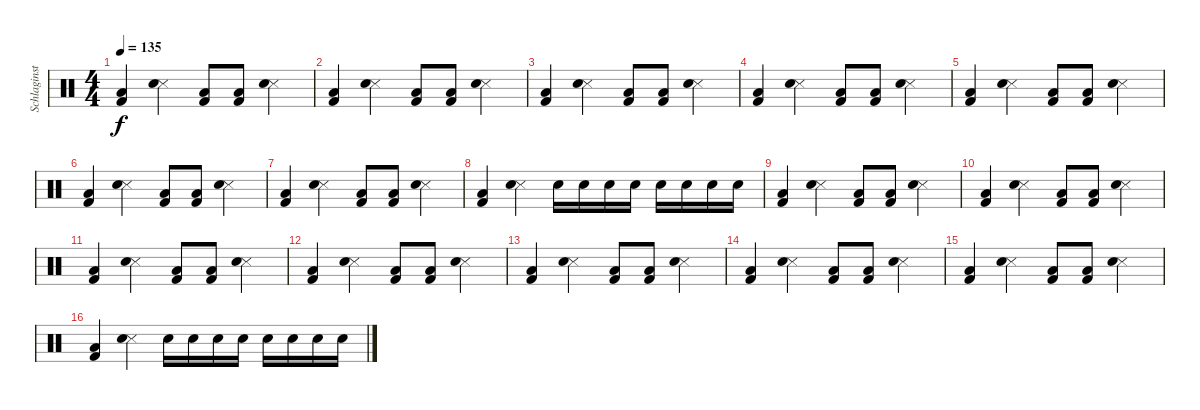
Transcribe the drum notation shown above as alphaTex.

\track ("Schlaginstrumente - Auswahl" "Schlaginst") {instrument percussion}
\staff {score}
\articulation defaults
\ts (4 4)
\tempo 135
\clef neutral
\ks c
("Kick (hit) 2" "Low Tom (hit)").4{dy f} ("Snare (side stick) 3" "Electric Snare (hit)").4 ("Kick (hit) 2" "Low Tom (hit)").8 ("Kick (hit) 2" "Low Tom (hit)").8 ("Snare (side stick) 3" "Electric Snare (hit)").4 |
("Kick (hit) 2" "Low Tom (hit)").4 ("Snare (side stick) 3" "Electric Snare (hit)").4 ("Kick (hit) 2" "Low Tom (hit)").8 ("Kick (hit) 2" "Low Tom (hit)").8 ("Snare (side stick) 3" "Electric Snare (hit)").4 |
("Kick (hit) 2" "Low Tom (hit)").4 ("Snare (side stick) 3" "Electric Snare (hit)").4 ("Kick (hit) 2" "Low Tom (hit)").8 ("Kick (hit) 2" "Low Tom (hit)").8 ("Snare (side stick) 3" "Electric Snare (hit)").4 |
("Kick (hit) 2" "Low Tom (hit)").4 ("Snare (side stick) 3" "Electric Snare (hit)").4 ("Kick (hit) 2" "Low Tom (hit)").8 ("Kick (hit) 2" "Low Tom (hit)").8 ("Snare (side stick) 3" "Electric Snare (hit)").4 |
("Kick (hit) 2" "Low Tom (hit)").4 ("Snare (side stick) 3" "Electric Snare (hit)").4 ("Kick (hit) 2" "Low Tom (hit)").8 ("Kick (hit) 2" "Low Tom (hit)").8 ("Snare (side stick) 3" "Electric Snare (hit)").4 |
("Kick (hit) 2" "Low Tom (hit)").4 ("Snare (side stick) 3" "Electric Snare (hit)").4 ("Kick (hit) 2" "Low Tom (hit)").8 ("Kick (hit) 2" "Low Tom (hit)").8 ("Snare (side stick) 3" "Electric Snare (hit)").4 |
("Kick (hit) 2" "Low Tom (hit)").4 ("Snare (side stick) 3" "Electric Snare (hit)").4 ("Kick (hit) 2" "Low Tom (hit)").8 ("Kick (hit) 2" "Low Tom (hit)").8 ("Snare (side stick) 3" "Electric Snare (hit)").4 |
("Kick (hit) 2" "Low Tom (hit)").4 ("Snare (side stick) 3" "Electric Snare (hit)").4 "Electric Snare (hit)".16 "Electric Snare (hit)".16 "Electric Snare (hit)".16 "Electric Snare (hit)".16 "Electric Snare (hit)".16 "Electric Snare (hit)".16 "Electric Snare (hit)".16 "Electric Snare (hit)".16 |
("Kick (hit) 2" "Low Tom (hit)").4 ("Snare (side stick) 3" "Electric Snare (hit)").4 ("Kick (hit) 2" "Low Tom (hit)").8 ("Kick (hit) 2" "Low Tom (hit)").8 ("Snare (side stick) 3" "Electric Snare (hit)").4 |
("Kick (hit) 2" "Low Tom (hit)").4 ("Snare (side stick) 3" "Electric Snare (hit)").4 ("Kick (hit) 2" "Low Tom (hit)").8 ("Kick (hit) 2" "Low Tom (hit)").8 ("Snare (side stick) 3" "Electric Snare (hit)").4 |
("Kick (hit) 2" "Low Tom (hit)").4 ("Snare (side stick) 3" "Electric Snare (hit)").4 ("Kick (hit) 2" "Low Tom (hit)").8 ("Kick (hit) 2" "Low Tom (hit)").8 ("Snare (side stick) 3" "Electric Snare (hit)").4 |
("Kick (hit) 2" "Low Tom (hit)").4 ("Snare (side stick) 3" "Electric Snare (hit)").4 ("Kick (hit) 2" "Low Tom (hit)").8 ("Kick (hit) 2" "Low Tom (hit)").8 ("Snare (side stick) 3" "Electric Snare (hit)").4 |
("Kick (hit) 2" "Low Tom (hit)").4 ("Snare (side stick) 3" "Electric Snare (hit)").4 ("Kick (hit) 2" "Low Tom (hit)").8 ("Kick (hit) 2" "Low Tom (hit)").8 ("Snare (side stick) 3" "Electric Snare (hit)").4 |
("Kick (hit) 2" "Low Tom (hit)").4 ("Snare (side stick) 3" "Electric Snare (hit)").4 ("Kick (hit) 2" "Low Tom (hit)").8 ("Kick (hit) 2" "Low Tom (hit)").8 ("Snare (side stick) 3" "Electric Snare (hit)").4 |
("Kick (hit) 2" "Low Tom (hit)").4 ("Snare (side stick) 3" "Electric Snare (hit)").4 ("Kick (hit) 2" "Low Tom (hit)").8 ("Kick (hit) 2" "Low Tom (hit)").8 ("Snare (side stick) 3" "Electric Snare (hit)").4 |
("Kick (hit) 2" "Low Tom (hit)").4 ("Snare (side stick) 3" "Electric Snare (hit)").4 "Electric Snare (hit)".16 "Electric Snare (hit)".16 "Electric Snare (hit)".16 "Electric Snare (hit)".16 "Electric Snare (hit)".16 "Electric Snare (hit)".16 "Electric Snare (hit)".16 "Electric Snare (hit)".16
